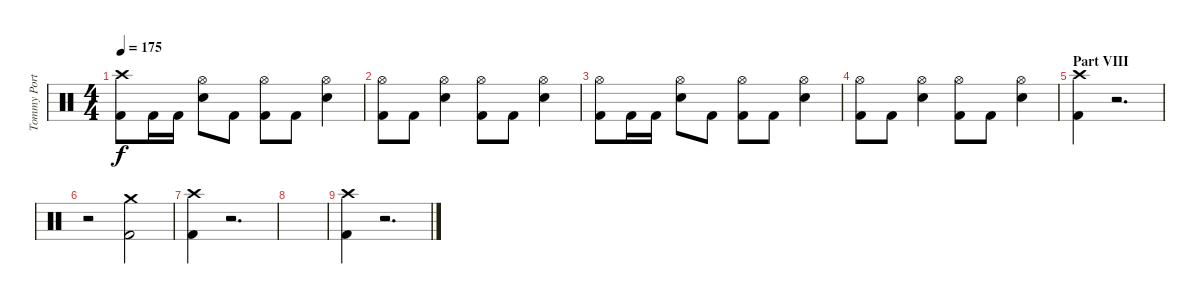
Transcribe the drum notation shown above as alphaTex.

\track ("Tommy Portimo - Drums" "Tommy Port") {instrument percussion}
\staff {score}
\articulation defaults
\ts (4 4)
\tempo 175
\clef neutral
\ks c
("Crash high (hit)" "Kick (hit) 2").8{dy f} "Kick (hit) 2".16 "Kick (hit) 2".16 ("Hi-Hat (open)" "Electric Snare (hit)").8 "Kick (hit) 2".8 ("Hi-Hat (open)" "Kick (hit) 2").8 "Kick (hit) 2".8 ("Hi-Hat (open)" "Electric Snare (hit)").4 |
("Hi-Hat (open)" "Kick (hit) 2").8 "Kick (hit) 2".8 ("Hi-Hat (open)" "Electric Snare (hit)").4 ("Hi-Hat (open)" "Kick (hit) 2").8 "Kick (hit) 2".8 ("Hi-Hat (open)" "Electric Snare (hit)").4 |
("Hi-Hat (open)" "Kick (hit) 2").8 "Kick (hit) 2".16 "Kick (hit) 2".16 ("Hi-Hat (open)" "Electric Snare (hit)").8 "Kick (hit) 2".8 ("Hi-Hat (open)" "Kick (hit) 2").8 "Kick (hit) 2".8 ("Hi-Hat (open)" "Electric Snare (hit)").4 |
("Hi-Hat (open)" "Kick (hit) 2").8 "Kick (hit) 2".8 ("Hi-Hat (open)" "Electric Snare (hit)").4 ("Hi-Hat (open)" "Kick (hit) 2").8 "Kick (hit) 2".8 ("Hi-Hat (open)" "Electric Snare (hit)").4 |
\section ("" "Part VIII")
("Crash high (hit)" "Kick (hit) 2").4 r.2{d} |
r.2 ("Crash medium (hit)" "Kick (hit) 2").2 |
("Crash high (hit)" "Kick (hit) 2").4 r.2{d} |
|
("Crash high (hit)" "Kick (hit) 2").4 r.2{d}
